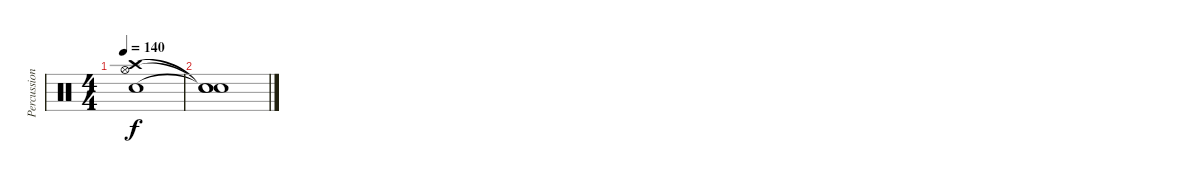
\track ("Percussion" "Percussion") {instrument percussion}
\staff {score}
\articulation defaults
\ts (4 4)
\tempo 140
\clef neutral
\ks c
("Hi-Hat (open)" "Crash high (hit)" "Snare (hit) 2").1{dy f} |
("Snare (hit)"{t} "Snare (hit)"{t} "Snare (hit)"{t}).1
